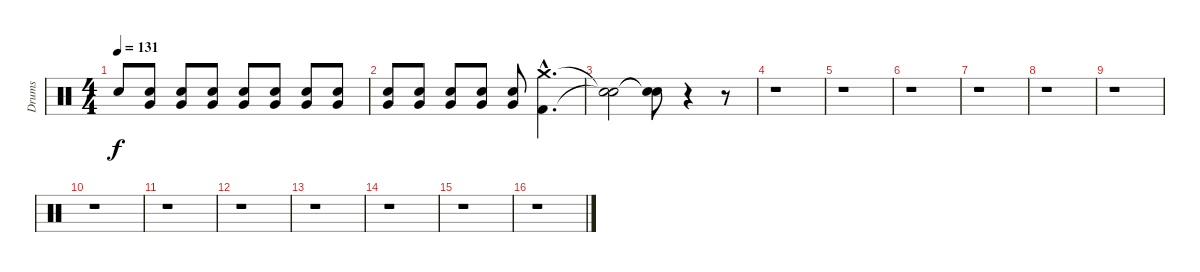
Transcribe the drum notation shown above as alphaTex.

\track ("Drums" "Drums") {instrument percussion}
\staff {score}
\articulation defaults
\ts (4 4)
\tempo 131
\clef neutral
\ks c "Snare (hit)"{t}.8{dy f}
("Very Low Tom (hit)" "Electric Snare (hit)").8{volume 6} ("Very Low Tom (hit)" "Electric Snare (hit)").8{volume 7} ("Very Low Tom (hit)" "Electric Snare (hit)").8{volume 8} ("Very Low Tom (hit)" "Electric Snare (hit)").8{volume 9} ("Very Low Tom (hit)" "Electric Snare (hit)").8{volume 9} ("Very Low Tom (hit)" "Electric Snare (hit)").8{volume 10} ("Very Low Tom (hit)" "Electric Snare (hit)").8{volume 11} |
("Very Low Tom (hit)" "Electric Snare (hit)").8{volume 12} ("Very Low Tom (hit)" "Electric Snare (hit)").8{volume 13} ("Very Low Tom (hit)" "Electric Snare (hit)").8{volume 13} ("Very Low Tom (hit)" "Electric Snare (hit)").8{volume 14} ("Very Low Tom (hit)" "Electric Snare (hit)").8{volume 15} ("Crash medium (hit)"{hac} "Kick (hit) 2"{hac}).4{d volume 16} |
("Snare (hit)"{t} "Snare (hit)"{t}).2 ("Snare (hit)"{t} "Snare (hit)"{t}).8 r.4 r.8 |
r.1 |
r.1 |
r.1 |
r.1 |
r.1 |
r.1 |
r.1 |
r.1 |
r.1 |
r.1 |
r.1 |
r.1 |
r.1
